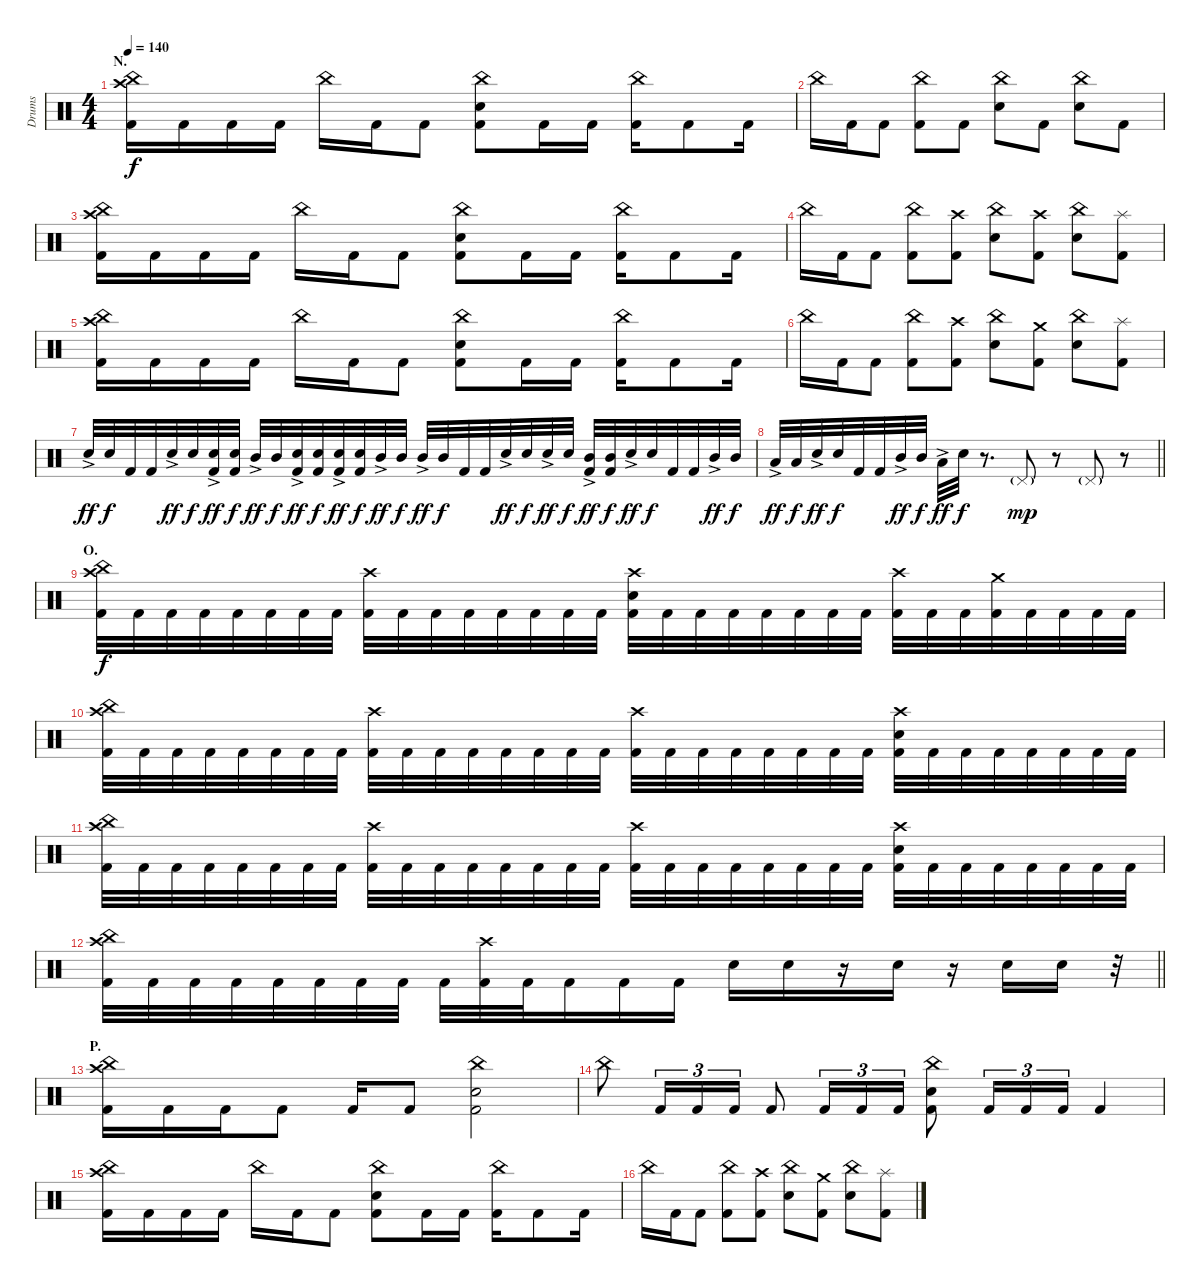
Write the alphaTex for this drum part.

\track ("Drums" "Drums") {instrument percussion}
\staff {score}
\articulation defaults
\ts (4 4)
\section ("" "N.")
\tempo 140
\clef neutral
\ks c
("China (hit)" "Crash high (hit)" "Kick (hit) 2").16{dy f} "Kick (hit) 2".16 "Kick (hit) 2".16 "Kick (hit) 2".16 "China (hit)".16 "Kick (hit) 2".16 "Kick (hit) 2".8 ("China (hit)" "Electric Snare (hit)" "Kick (hit) 2").8 "Kick (hit) 2".16 "Kick (hit) 2".16 ("China (hit)" "Kick (hit) 2").16 "Kick (hit) 2".8 "Kick (hit) 2".16 |
"China (hit)".16 "Kick (hit) 2".16 "Kick (hit) 2".8 ("China (hit)" "Kick (hit) 2").8 "Kick (hit) 2".8 ("China (hit)" "Electric Snare (hit)").8 "Kick (hit) 2".8 ("China (hit)" "Electric Snare (hit)").8 "Kick (hit) 2".8 |
("China (hit)" "Crash high (hit)" "Kick (hit) 2").16 "Kick (hit) 2".16 "Kick (hit) 2".16 "Kick (hit) 2".16 "China (hit)".16 "Kick (hit) 2".16 "Kick (hit) 2".8 ("China (hit)" "Electric Snare (hit)" "Kick (hit) 2").8 "Kick (hit) 2".16 "Kick (hit) 2".16 ("China (hit)" "Kick (hit) 2").16 "Kick (hit) 2".8 "Kick (hit) 2".16 |
"China (hit)".16 "Kick (hit) 2".16 "Kick (hit) 2".8 ("China (hit)" "Kick (hit) 2").8 ("Crash high (hit)" "Kick (hit) 2").8 ("China (hit)" "Electric Snare (hit)").8 ("Crash high (hit)" "Kick (hit) 2").8 ("China (hit)" "Electric Snare (hit)").8 ("Splash (hit)" "Kick (hit) 2").8 |
("China (hit)" "Crash high (hit)" "Kick (hit) 2").16 "Kick (hit) 2".16 "Kick (hit) 2".16 "Kick (hit) 2".16 "China (hit)".16 "Kick (hit) 2".16 "Kick (hit) 2".8 ("China (hit)" "Electric Snare (hit)" "Kick (hit) 2").8 "Kick (hit) 2".16 "Kick (hit) 2".16 ("China (hit)" "Kick (hit) 2").16 "Kick (hit) 2".8 "Kick (hit) 2".16 |
"China (hit)".16 "Kick (hit) 2".16 "Kick (hit) 2".8 ("China (hit)" "Kick (hit) 2").8 ("Crash high (hit)" "Kick (hit) 2").8 ("China (hit)" "Electric Snare (hit)").8 ("Crash medium (hit)" "Kick (hit) 2").8 ("China (hit)" "Electric Snare (hit)").8 ("Splash (hit)" "Kick (hit) 2").8 |
"Electric Snare (hit)"{ac}.32{dy ff} "Electric Snare (hit)".32{dy f} "Kick (hit) 2".32 "Kick (hit) 2".32 "Electric Snare (hit)"{ac}.32{dy ff} "Electric Snare (hit)".32{dy f} ("Electric Snare (hit)"{ac} "Kick (hit) 2").32{dy ff} ("Electric Snare (hit)" "Kick (hit) 2").32{dy f} "Mid Tom (hit)"{ac}.32{dy ff} "Mid Tom (hit)".32{dy f} ("Electric Snare (hit)"{ac} "Kick (hit) 2").32{dy ff} ("Electric Snare (hit)" "Kick (hit) 2").32{dy f} ("Electric Snare (hit)"{ac} "Kick (hit) 2").32{dy ff} ("Electric Snare (hit)" "Kick (hit) 2").32{dy f} "Mid Tom (hit)"{ac}.32{dy ff} "Mid Tom (hit)".32{dy f} "Mid Tom (hit)"{ac}.32{dy ff} "Mid Tom (hit)".32{dy f} "Kick (hit) 2".32 "Kick (hit) 2".32 "Electric Snare (hit)"{ac}.32{dy ff} "Electric Snare (hit)".32{dy f} "Electric Snare (hit)"{ac}.32{dy ff} "Electric Snare (hit)".32{dy f} ("Mid Tom (hit)"{ac} "Kick (hit) 2").32{dy ff} ("Mid Tom (hit)" "Kick (hit) 2").32{dy f} "Electric Snare (hit)"{ac}.32{dy ff} "Electric Snare (hit)".32{dy f} "Kick (hit) 2".32 "Kick (hit) 2".32 "Mid Tom (hit)"{ac}.32{dy ff} "Mid Tom (hit)".32{dy f} |
\barLineRight lightlight "Low Tom (hit)"{ac}.32{dy ff} "Low Tom (hit)".32{dy f} "Electric Snare (hit)"{ac}.32{dy ff} "Electric Snare (hit)".32{dy f} "Kick (hit) 2".32 "Kick (hit) 2".32 "Mid Tom (hit)"{ac}.32{dy ff} "Mid Tom (hit)".32{dy f} "Low Tom (hit)"{ac}.32{dy ff} "Electric Snare (hit)".32{dy f}
r.8{d} "Pedal Hi-Hat (hit)"{g}.8{dy mp} r.8 "Pedal Hi-Hat (hit)"{g}.8 r.8 |
\section ("" "O.")
("China (hit)" "Crash high (hit)" "Kick (hit) 2").32{dy f} "Kick (hit) 2".32 "Kick (hit) 2".32 "Kick (hit) 2".32 "Kick (hit) 2".32 "Kick (hit) 2".32 "Kick (hit) 2".32 "Kick (hit) 2".32 ("Crash high (hit)" "Kick (hit) 2").32 "Kick (hit) 2".32 "Kick (hit) 2".32 "Kick (hit) 2".32 "Kick (hit) 2".32 "Kick (hit) 2".32 "Kick (hit) 2".32 "Kick (hit) 2".32 ("Crash high (hit)" "Electric Snare (hit)" "Kick (hit) 2").32 "Kick (hit) 2".32 "Kick (hit) 2".32 "Kick (hit) 2".32 "Kick (hit) 2".32 "Kick (hit) 2".32 "Kick (hit) 2".32 "Kick (hit) 2".32 ("Crash high (hit)" "Kick (hit) 2").32 "Kick (hit) 2".32 "Kick (hit) 2".32 ("Crash medium (hit)" "Kick (hit) 2").32 "Kick (hit) 2".32 "Kick (hit) 2".32 "Kick (hit) 2".32 "Kick (hit) 2".32 |
("China (hit)" "Crash high (hit)" "Kick (hit) 2").32 "Kick (hit) 2".32 "Kick (hit) 2".32 "Kick (hit) 2".32 "Kick (hit) 2".32 "Kick (hit) 2".32 "Kick (hit) 2".32 "Kick (hit) 2".32 ("Crash high (hit)" "Kick (hit) 2").32 "Kick (hit) 2".32 "Kick (hit) 2".32 "Kick (hit) 2".32 "Kick (hit) 2".32 "Kick (hit) 2".32 "Kick (hit) 2".32 "Kick (hit) 2".32 ("Crash high (hit)" "Kick (hit) 2").32 "Kick (hit) 2".32 "Kick (hit) 2".32 "Kick (hit) 2".32 "Kick (hit) 2".32 "Kick (hit) 2".32 "Kick (hit) 2".32 "Kick (hit) 2".32 ("Crash high (hit)" "Electric Snare (hit)" "Kick (hit) 2").32 "Kick (hit) 2".32 "Kick (hit) 2".32 "Kick (hit) 2".32 "Kick (hit) 2".32 "Kick (hit) 2".32 "Kick (hit) 2".32 "Kick (hit) 2".32 |
("China (hit)" "Crash high (hit)" "Kick (hit) 2").32 "Kick (hit) 2".32 "Kick (hit) 2".32 "Kick (hit) 2".32 "Kick (hit) 2".32 "Kick (hit) 2".32 "Kick (hit) 2".32 "Kick (hit) 2".32 ("Crash high (hit)" "Kick (hit) 2").32 "Kick (hit) 2".32 "Kick (hit) 2".32 "Kick (hit) 2".32 "Kick (hit) 2".32 "Kick (hit) 2".32 "Kick (hit) 2".32 "Kick (hit) 2".32 ("Crash high (hit)" "Kick (hit) 2").32 "Kick (hit) 2".32 "Kick (hit) 2".32 "Kick (hit) 2".32 "Kick (hit) 2".32 "Kick (hit) 2".32 "Kick (hit) 2".32 "Kick (hit) 2".32 ("Crash high (hit)" "Electric Snare (hit)" "Kick (hit) 2").32 "Kick (hit) 2".32 "Kick (hit) 2".32 "Kick (hit) 2".32 "Kick (hit) 2".32 "Kick (hit) 2".32 "Kick (hit) 2".32 "Kick (hit) 2".32 |
\barLineRight lightlight
("China (hit)" "Crash high (hit)" "Kick (hit) 2").32 "Kick (hit) 2".32 "Kick (hit) 2".32 "Kick (hit) 2".32 "Kick (hit) 2".32 "Kick (hit) 2".32 "Kick (hit) 2".32 "Kick (hit) 2".32 "Kick (hit) 2".32 ("Crash high (hit)" "Kick (hit) 2").32 "Kick (hit) 2".32 "Kick (hit) 2".16 "Kick (hit) 2".16 "Kick (hit) 2".16 "Electric Snare (hit)".16 "Electric Snare (hit)".16 r.16 "Electric Snare (hit)".16 r.16 "Electric Snare (hit)".16 "Electric Snare (hit)".16 r.32 |
\section ("" "P.")
("China (hit)" "Crash high (hit)" "Kick (hit) 2").16 "Kick (hit) 2".16 "Kick (hit) 2".16 "Kick (hit) 2".8 "Kick (hit) 2".16 "Kick (hit) 2".8 ("China (hit)" "Electric Snare (hit)" "Kick (hit) 2").2 |
"China (hit)".8 "Kick (hit) 2".16{tu (3 2)} "Kick (hit) 2".16{tu (3 2)} "Kick (hit) 2".16{tu (3 2)} "Kick (hit) 2".8 "Kick (hit) 2".16{tu (3 2)} "Kick (hit) 2".16{tu (3 2)} "Kick (hit) 2".16{tu (3 2)} ("China (hit)" "Electric Snare (hit)" "Kick (hit) 2").8 "Kick (hit) 2".16{tu (3 2)} "Kick (hit) 2".16{tu (3 2)} "Kick (hit) 2".16{tu (3 2)} "Kick (hit) 2".4 |
("China (hit)" "Crash high (hit)" "Kick (hit) 2").16 "Kick (hit) 2".16 "Kick (hit) 2".16 "Kick (hit) 2".16 "China (hit)".16 "Kick (hit) 2".16 "Kick (hit) 2".8 ("China (hit)" "Electric Snare (hit)" "Kick (hit) 2").8 "Kick (hit) 2".16 "Kick (hit) 2".16 ("China (hit)" "Kick (hit) 2").16 "Kick (hit) 2".8 "Kick (hit) 2".16 |
"China (hit)".16 "Kick (hit) 2".16 "Kick (hit) 2".8 ("China (hit)" "Kick (hit) 2").8 ("Crash high (hit)" "Kick (hit) 2").8 ("China (hit)" "Electric Snare (hit)").8 ("Crash medium (hit)" "Kick (hit) 2").8 ("China (hit)" "Electric Snare (hit)").8 ("Splash (hit)" "Kick (hit) 2").8
